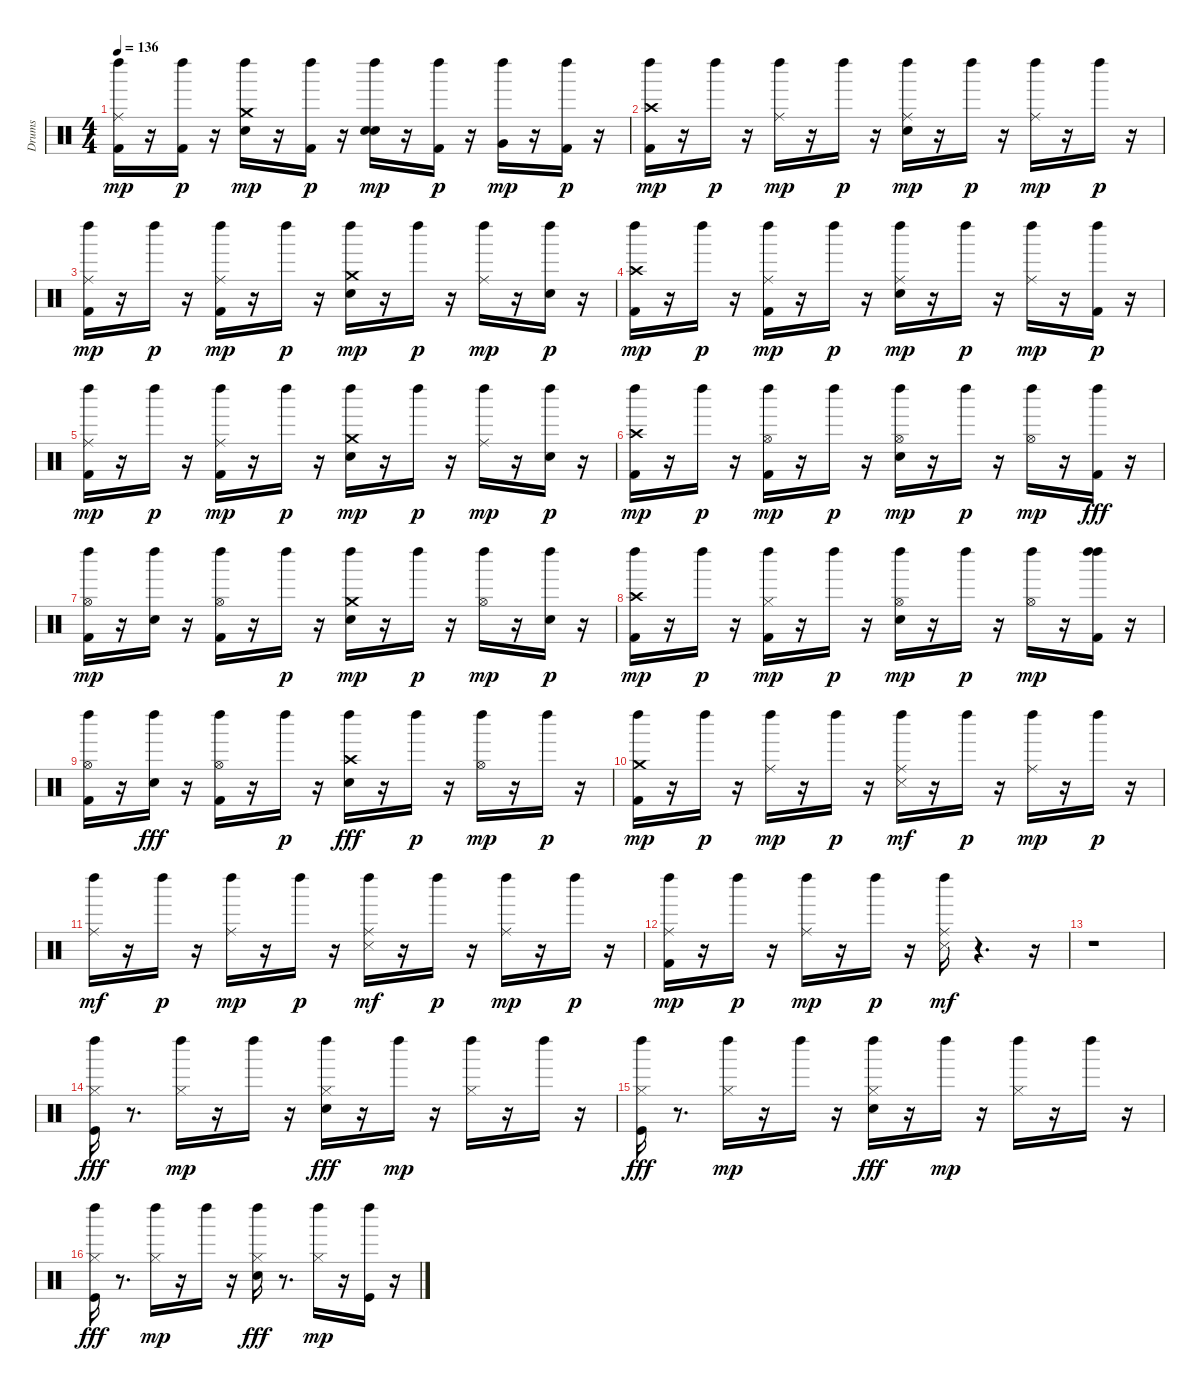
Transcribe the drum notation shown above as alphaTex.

\track ("Drums" "Drums") {instrument percussion}
\staff {score}
\articulation defaults
\ts (4 4)
\tempo 136
\clef neutral
\ks c
("Ride (middle)" "Kick (hit) 2" "Left Maraca (hit)").16{dy mp} r.16 ("Kick (hit) 2" "Left Maraca (hit)").16{dy p} r.16 ("Electric Snare (hit)" "Crash medium (hit)" "Left Maraca (hit)").16{dy mp} r.16 ("Kick (hit) 2" "Left Maraca (hit)").16{dy p} r.16 ("Electric Snare (hit)" "Electric Snare (hit)" "Left Maraca (hit)").16{dy mp} r.16 ("Kick (hit) 2" "Left Maraca (hit)").16{dy p} r.16 ("Very Low Tom (hit)" "Left Maraca (hit)").16{dy mp} r.16 ("Kick (hit) 2" "Left Maraca (hit)").16{dy p} r.16 |
("Kick (hit) 2" "Crash high (hit)" "Left Maraca (hit)").16{dy mp} r.16 "Left Maraca (hit)".16{dy p} r.16 ("Ride (middle)" "Left Maraca (hit)").16{dy mp} r.16 "Left Maraca (hit)".16{dy p} r.16 ("Electric Snare (hit)" "Ride (middle)" "Left Maraca (hit)").16{dy mp} r.16 "Left Maraca (hit)".16{dy p} r.16 ("Ride (middle)" "Left Maraca (hit)").16{dy mp} r.16 "Left Maraca (hit)".16{dy p} r.16 |
("Kick (hit) 2" "Ride (middle)" "Left Maraca (hit)").16{dy mp} r.16 "Left Maraca (hit)".16{dy p} r.16 ("Kick (hit) 2" "Ride (middle)" "Left Maraca (hit)").16{dy mp} r.16 "Left Maraca (hit)".16{dy p} r.16 ("Electric Snare (hit)" "Crash medium (hit)" "Left Maraca (hit)").16{dy mp} r.16 "Left Maraca (hit)".16{dy p} r.16 ("Ride (middle)" "Left Maraca (hit)").16{dy mp} r.16 ("Electric Snare (hit)" "Left Maraca (hit)").16{dy p} r.16 |
("Kick (hit) 2" "Crash high (hit)" "Left Maraca (hit)").16{dy mp} r.16 "Left Maraca (hit)".16{dy p} r.16 ("Ride (middle)" "Kick (hit) 2" "Left Maraca (hit)").16{dy mp} r.16 "Left Maraca (hit)".16{dy p} r.16 ("Electric Snare (hit)" "Ride (middle)" "Left Maraca (hit)").16{dy mp} r.16 "Left Maraca (hit)".16{dy p} r.16 ("Ride (middle)" "Left Maraca (hit)").16{dy mp} r.16 ("Kick (hit) 2" "Left Maraca (hit)").16{dy p} r.16 |
("Kick (hit) 2" "Ride (middle)" "Left Maraca (hit)").16{dy mp} r.16 "Left Maraca (hit)".16{dy p} r.16 ("Kick (hit) 2" "Ride (middle)" "Left Maraca (hit)").16{dy mp} r.16 "Left Maraca (hit)".16{dy p} r.16 ("Electric Snare (hit)" "Crash medium (hit)" "Left Maraca (hit)").16{dy mp} r.16 "Left Maraca (hit)".16{dy p} r.16 ("Ride (middle)" "Left Maraca (hit)").16{dy mp} r.16 ("Electric Snare (hit)" "Left Maraca (hit)").16{dy p} r.16 |
("Kick (hit) 2" "Crash high (hit)" "Left Maraca (hit)").16{dy mp} r.16 "Left Maraca (hit)".16{dy p} r.16 ("Left Maraca (hit)" "Kick (hit) 2" "Hi-Hat (open)").16{dy mp} r.16 "Left Maraca (hit)".16{dy p} r.16 ("Electric Snare (hit)" "Left Maraca (hit)" "Hi-Hat (open)").16{dy mp} r.16 "Left Maraca (hit)".16{dy p} r.16 ("Left Maraca (hit)" "Hi-Hat (open)").16{dy mp} r.16 ("Left Maraca (hit)" "Kick (hit) 2").16{dy fff} r.16 |
("Kick (hit) 2" "Left Maraca (hit)" "Hi-Hat (open)").16{dy mp} r.16 ("Left Maraca (hit)" "Electric Snare (hit)").16 r.16 ("Kick (hit) 2" "Left Maraca (hit)" "Hi-Hat (open)").16 r.16 "Left Maraca (hit)".16{dy p} r.16 ("Electric Snare (hit)" "Crash medium (hit)" "Left Maraca (hit)").16{dy mp} r.16 "Left Maraca (hit)".16{dy p} r.16 ("Left Maraca (hit)" "Hi-Hat (open)").16{dy mp} r.16 ("Electric Snare (hit)" "Left Maraca (hit)").16{dy p} r.16 |
("Kick (hit) 2" "Crash high (hit)" "Left Maraca (hit)").16{dy mp} r.16 "Left Maraca (hit)".16{dy p} r.16 ("Left Maraca (hit)" "Kick (hit) 2" "Hi-Hat (closed)").16{dy mp} r.16 "Left Maraca (hit)".16{dy p} r.16 ("Electric Snare (hit)" "Left Maraca (hit)" "Hi-Hat (open)").16{dy mp} r.16 "Left Maraca (hit)".16{dy p} r.16 ("Left Maraca (hit)" "Hi-Hat (open)").16{dy mp} r.16 ("Left Maraca (hit)" "Left Maraca (hit)" "Kick (hit) 2").16 r.16 |
("Hi-Hat (open)" "Kick (hit) 2" "Left Maraca (hit)").16 r.16 ("Left Maraca (hit)" "Electric Snare (hit)").16{dy fff} r.16 ("Left Maraca (hit)" "Kick (hit) 2" "Hi-Hat (open)").16 r.16 "Left Maraca (hit)".16{dy p} r.16 ("Left Maraca (hit)" "Crash high (hit)" "Electric Snare (hit)").16{dy fff} r.16 "Left Maraca (hit)".16{dy p} r.16 ("Left Maraca (hit)" "Hi-Hat (open)").16{dy mp} r.16 "Left Maraca (hit)".16{dy p} r.16 |
("Kick (hit) 2" "Crash medium (hit)" "Left Maraca (hit)").16{dy mp} r.16 "Left Maraca (hit)".16{dy p} r.16 ("Left Maraca (hit)" "Ride (middle)").16{dy mp} r.16 "Left Maraca (hit)".16{dy p} r.16 ("Snare (side stick) 3" "Left Maraca (hit)" "Ride (middle)").16{dy mf} r.16 "Left Maraca (hit)".16{dy p} r.16 ("Left Maraca (hit)" "Ride (middle)").16{dy mp} r.16 "Left Maraca (hit)".16{dy p} r.16 |
("Left Maraca (hit)" "Ride (middle)").16{dy mf} r.16 "Left Maraca (hit)".16{dy p} r.16 ("Left Maraca (hit)" "Ride (middle)").16{dy mp} r.16 "Left Maraca (hit)".16{dy p} r.16 ("Snare (side stick) 3" "Left Maraca (hit)" "Ride (middle)").16{dy mf} r.16 "Left Maraca (hit)".16{dy p} r.16 ("Left Maraca (hit)" "Ride (middle)").16{dy mp} r.16 "Left Maraca (hit)".16{dy p} r.16 |
("Kick (hit) 2" "Left Maraca (hit)" "Ride (middle)").16{dy mp} r.16 "Left Maraca (hit)".16{dy p} r.16 ("Left Maraca (hit)" "Ride (middle)").16{dy mp} r.16 "Left Maraca (hit)".16{dy p} r.16 ("Snare (side stick) 3" "Left Maraca (hit)" "Ride (middle)").16{dy mf} r.4{d} r.16 |
r.1 |
("Kick (hit)" "Hi-Hat (closed)" "Left Maraca (hit)").16{dy fff volume 14} r.8{d} ("Hi-Hat (closed)" "Left Maraca (hit)").16{dy mp} r.16 "Left Maraca (hit)".16 r.16 ("Snare (hit) 2" "Hi-Hat (closed)" "Left Maraca (hit)").16{dy fff} r.16 "Left Maraca (hit)".16{dy mp} r.16 ("Hi-Hat (closed)" "Left Maraca (hit)").16 r.16 "Left Maraca (hit)".16 r.16 |
("Kick (hit)" "Hi-Hat (closed)" "Left Maraca (hit)").16{dy fff} r.8{d} ("Hi-Hat (closed)" "Left Maraca (hit)").16{dy mp} r.16 "Left Maraca (hit)".16 r.16 ("Snare (hit) 2" "Hi-Hat (closed)" "Left Maraca (hit)").16{dy fff} r.16 "Left Maraca (hit)".16{dy mp} r.16 ("Hi-Hat (closed)" "Left Maraca (hit)").16 r.16 "Left Maraca (hit)".16 r.16 |
("Kick (hit)" "Hi-Hat (closed)" "Left Maraca (hit)").16{dy fff} r.8{d} ("Hi-Hat (closed)" "Left Maraca (hit)").16{dy mp} r.16 "Left Maraca (hit)".16 r.16 ("Snare (hit) 2" "Hi-Hat (closed)" "Left Maraca (hit)").16{dy fff} r.8{d} ("Hi-Hat (closed)" "Left Maraca (hit)").16{dy mp} r.16 ("Kick (hit)" "Left Maraca (hit)").16 r.16
